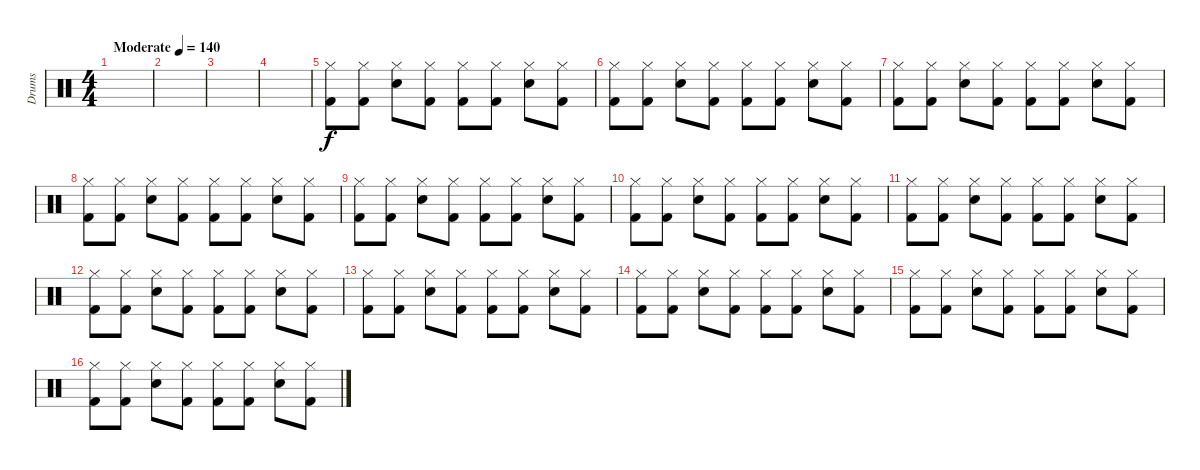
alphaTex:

\track ("Drums" "Drums") {instrument percussion}
\staff {score}
\articulation defaults
\ts (4 4)
\tempo (140 "Moderate")
\clef neutral
\ks c
|
|
|
|
("Hi-Hat (closed)" "Kick (hit) 2").8 ("Hi-Hat (closed)" "Kick (hit) 2").8 ("Hi-Hat (closed)" "Electric Snare (hit)").8 ("Hi-Hat (closed)" "Kick (hit) 2").8 ("Hi-Hat (closed)" "Kick (hit) 2").8 ("Hi-Hat (closed)" "Kick (hit) 2").8 ("Hi-Hat (closed)" "Electric Snare (hit)").8 ("Hi-Hat (closed)" "Kick (hit) 2").8 |
("Hi-Hat (closed)" "Kick (hit) 2").8 ("Hi-Hat (closed)" "Kick (hit) 2").8 ("Hi-Hat (closed)" "Electric Snare (hit)").8 ("Hi-Hat (closed)" "Kick (hit) 2").8 ("Hi-Hat (closed)" "Kick (hit) 2").8 ("Hi-Hat (closed)" "Kick (hit) 2").8 ("Hi-Hat (closed)" "Electric Snare (hit)").8 ("Hi-Hat (closed)" "Kick (hit) 2").8 |
("Hi-Hat (closed)" "Kick (hit) 2").8 ("Hi-Hat (closed)" "Kick (hit) 2").8 ("Hi-Hat (closed)" "Electric Snare (hit)").8 ("Hi-Hat (closed)" "Kick (hit) 2").8 ("Hi-Hat (closed)" "Kick (hit) 2").8 ("Hi-Hat (closed)" "Kick (hit) 2").8 ("Hi-Hat (closed)" "Electric Snare (hit)").8 ("Hi-Hat (closed)" "Kick (hit) 2").8 |
("Hi-Hat (closed)" "Kick (hit) 2").8 ("Hi-Hat (closed)" "Kick (hit) 2").8 ("Hi-Hat (closed)" "Electric Snare (hit)").8 ("Hi-Hat (closed)" "Kick (hit) 2").8 ("Hi-Hat (closed)" "Kick (hit) 2").8 ("Hi-Hat (closed)" "Kick (hit) 2").8 ("Hi-Hat (closed)" "Electric Snare (hit)").8 ("Hi-Hat (closed)" "Kick (hit) 2").8 |
("Hi-Hat (closed)" "Kick (hit) 2").8 ("Hi-Hat (closed)" "Kick (hit) 2").8 ("Hi-Hat (closed)" "Electric Snare (hit)").8 ("Hi-Hat (closed)" "Kick (hit) 2").8 ("Hi-Hat (closed)" "Kick (hit) 2").8 ("Hi-Hat (closed)" "Kick (hit) 2").8 ("Hi-Hat (closed)" "Electric Snare (hit)").8 ("Hi-Hat (closed)" "Kick (hit) 2").8 |
("Hi-Hat (closed)" "Kick (hit) 2").8 ("Hi-Hat (closed)" "Kick (hit) 2").8 ("Hi-Hat (closed)" "Electric Snare (hit)").8 ("Hi-Hat (closed)" "Kick (hit) 2").8 ("Hi-Hat (closed)" "Kick (hit) 2").8 ("Hi-Hat (closed)" "Kick (hit) 2").8 ("Hi-Hat (closed)" "Electric Snare (hit)").8 ("Hi-Hat (closed)" "Kick (hit) 2").8 |
("Hi-Hat (closed)" "Kick (hit) 2").8 ("Hi-Hat (closed)" "Kick (hit) 2").8 ("Hi-Hat (closed)" "Electric Snare (hit)").8 ("Hi-Hat (closed)" "Kick (hit) 2").8 ("Hi-Hat (closed)" "Kick (hit) 2").8 ("Hi-Hat (closed)" "Kick (hit) 2").8 ("Hi-Hat (closed)" "Electric Snare (hit)").8 ("Hi-Hat (closed)" "Kick (hit) 2").8 |
("Hi-Hat (closed)" "Kick (hit) 2").8 ("Hi-Hat (closed)" "Kick (hit) 2").8 ("Hi-Hat (closed)" "Electric Snare (hit)").8 ("Hi-Hat (closed)" "Kick (hit) 2").8 ("Hi-Hat (closed)" "Kick (hit) 2").8 ("Hi-Hat (closed)" "Kick (hit) 2").8 ("Hi-Hat (closed)" "Electric Snare (hit)").8 ("Hi-Hat (closed)" "Kick (hit) 2").8 |
("Hi-Hat (closed)" "Kick (hit) 2").8 ("Hi-Hat (closed)" "Kick (hit) 2").8 ("Hi-Hat (closed)" "Electric Snare (hit)").8 ("Hi-Hat (closed)" "Kick (hit) 2").8 ("Hi-Hat (closed)" "Kick (hit) 2").8 ("Hi-Hat (closed)" "Kick (hit) 2").8 ("Hi-Hat (closed)" "Electric Snare (hit)").8 ("Hi-Hat (closed)" "Kick (hit) 2").8 |
("Hi-Hat (closed)" "Kick (hit) 2").8 ("Hi-Hat (closed)" "Kick (hit) 2").8 ("Hi-Hat (closed)" "Electric Snare (hit)").8 ("Hi-Hat (closed)" "Kick (hit) 2").8 ("Hi-Hat (closed)" "Kick (hit) 2").8 ("Hi-Hat (closed)" "Kick (hit) 2").8 ("Hi-Hat (closed)" "Electric Snare (hit)").8 ("Hi-Hat (closed)" "Kick (hit) 2").8 |
("Hi-Hat (closed)" "Kick (hit) 2").8 ("Hi-Hat (closed)" "Kick (hit) 2").8 ("Hi-Hat (closed)" "Electric Snare (hit)").8 ("Hi-Hat (closed)" "Kick (hit) 2").8 ("Hi-Hat (closed)" "Kick (hit) 2").8 ("Hi-Hat (closed)" "Kick (hit) 2").8 ("Hi-Hat (closed)" "Electric Snare (hit)").8 ("Hi-Hat (closed)" "Kick (hit) 2").8 |
("Hi-Hat (closed)" "Kick (hit) 2").8 ("Hi-Hat (closed)" "Kick (hit) 2").8 ("Hi-Hat (closed)" "Electric Snare (hit)").8 ("Hi-Hat (closed)" "Kick (hit) 2").8 ("Hi-Hat (closed)" "Kick (hit) 2").8 ("Hi-Hat (closed)" "Kick (hit) 2").8 ("Hi-Hat (closed)" "Electric Snare (hit)").8 ("Hi-Hat (closed)" "Kick (hit) 2").8
